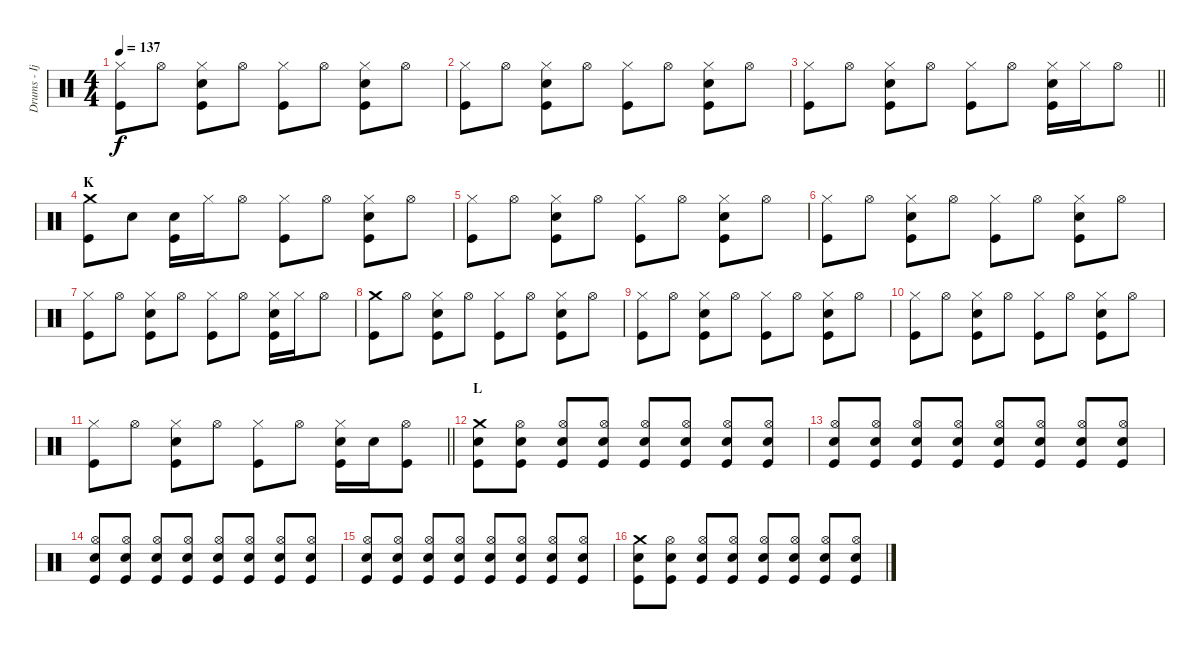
\track ("Drums - Ijichi" "Drums - Ij") {instrument percussion}
\staff {score}
\articulation defaults
\ts (4 4)
\tempo 137
\clef neutral
\ks c
("Hi-Hat (closed)" "Kick (hit)").8{dy f} "Hi-Hat (open)".8 ("Hi-Hat (closed)" "Electric Snare (hit)" "Kick (hit)").8 "Hi-Hat (open)".8 ("Hi-Hat (closed)" "Kick (hit)").8 "Hi-Hat (open)".8 ("Hi-Hat (closed)" "Electric Snare (hit)" "Kick (hit)").8 "Hi-Hat (open)".8 |
("Hi-Hat (closed)" "Kick (hit)").8 "Hi-Hat (open)".8 ("Hi-Hat (closed)" "Electric Snare (hit)" "Kick (hit)").8 "Hi-Hat (open)".8 ("Hi-Hat (closed)" "Kick (hit)").8 "Hi-Hat (open)".8 ("Hi-Hat (closed)" "Electric Snare (hit)" "Kick (hit)").8 "Hi-Hat (open)".8 |
\barLineRight lightlight
("Hi-Hat (closed)" "Kick (hit)").8 "Hi-Hat (open)".8 ("Hi-Hat (closed)" "Electric Snare (hit)" "Kick (hit)").8 "Hi-Hat (open)".8 ("Hi-Hat (closed)" "Kick (hit)").8 "Hi-Hat (open)".8 ("Hi-Hat (closed)" "Electric Snare (hit)" "Kick (hit)").16 "Hi-Hat (closed)".16 "Hi-Hat (open)".8 |
\section ("" "K")
("Crash medium (hit)" "Kick (hit)").8 "Electric Snare (hit)".8 ("Electric Snare (hit)" "Kick (hit)").16 "Hi-Hat (closed)".16 "Hi-Hat (open)".8 ("Hi-Hat (closed)" "Kick (hit)").8 "Hi-Hat (open)".8 ("Hi-Hat (closed)" "Electric Snare (hit)" "Kick (hit)").8 "Hi-Hat (open)".8 |
("Hi-Hat (closed)" "Kick (hit)").8 "Hi-Hat (open)".8 ("Hi-Hat (closed)" "Electric Snare (hit)" "Kick (hit)").8 "Hi-Hat (open)".8 ("Hi-Hat (closed)" "Kick (hit)").8 "Hi-Hat (open)".8 ("Hi-Hat (closed)" "Electric Snare (hit)" "Kick (hit)").8 "Hi-Hat (open)".8 |
("Hi-Hat (closed)" "Kick (hit)").8 "Hi-Hat (open)".8 ("Hi-Hat (closed)" "Electric Snare (hit)" "Kick (hit)").8 "Hi-Hat (open)".8 ("Hi-Hat (closed)" "Kick (hit)").8 "Hi-Hat (open)".8 ("Hi-Hat (closed)" "Electric Snare (hit)" "Kick (hit)").8 "Hi-Hat (open)".8 |
("Hi-Hat (closed)" "Kick (hit)").8 "Hi-Hat (open)".8 ("Hi-Hat (closed)" "Electric Snare (hit)" "Kick (hit)").8 "Hi-Hat (open)".8 ("Hi-Hat (closed)" "Kick (hit)").8 "Hi-Hat (open)".8 ("Hi-Hat (closed)" "Electric Snare (hit)" "Kick (hit)").16 "Hi-Hat (closed)".16 "Hi-Hat (open)".8 |
("Crash medium (hit)" "Kick (hit)").8 "Hi-Hat (open)".8 ("Hi-Hat (closed)" "Electric Snare (hit)" "Kick (hit)").8 "Hi-Hat (open)".8 ("Hi-Hat (closed)" "Kick (hit)").8 "Hi-Hat (open)".8 ("Hi-Hat (closed)" "Electric Snare (hit)" "Kick (hit)").8 "Hi-Hat (open)".8 |
("Hi-Hat (closed)" "Kick (hit)").8 "Hi-Hat (open)".8 ("Hi-Hat (closed)" "Electric Snare (hit)" "Kick (hit)").8 "Hi-Hat (open)".8 ("Hi-Hat (closed)" "Kick (hit)").8 "Hi-Hat (open)".8 ("Hi-Hat (closed)" "Electric Snare (hit)" "Kick (hit)").8 "Hi-Hat (open)".8 |
("Hi-Hat (closed)" "Kick (hit)").8 "Hi-Hat (open)".8 ("Hi-Hat (closed)" "Electric Snare (hit)" "Kick (hit)").8 "Hi-Hat (open)".8 ("Hi-Hat (closed)" "Kick (hit)").8 "Hi-Hat (open)".8 ("Hi-Hat (closed)" "Electric Snare (hit)" "Kick (hit)").8 "Hi-Hat (open)".8 |
\barLineRight lightlight
("Hi-Hat (closed)" "Kick (hit)").8 "Hi-Hat (open)".8 ("Hi-Hat (closed)" "Electric Snare (hit)" "Kick (hit)").8 "Hi-Hat (open)".8 ("Hi-Hat (closed)" "Kick (hit)").8 "Hi-Hat (open)".8 ("Hi-Hat (closed)" "Electric Snare (hit)" "Kick (hit)").16 "Electric Snare (hit)".16 ("Hi-Hat (open)" "Kick (hit)").8 |
\section ("" "L")
("Crash medium (hit)" "Electric Snare (hit)" "Kick (hit)").8{volume 10} ("Hi-Hat (open)" "Electric Snare (hit)" "Kick (hit)").8{volume 13} ("Hi-Hat (open)" "Electric Snare (hit)" "Kick (hit)").8 ("Hi-Hat (open)" "Electric Snare (hit)" "Kick (hit)").8 ("Hi-Hat (open)" "Electric Snare (hit)" "Kick (hit)").8 ("Hi-Hat (open)" "Electric Snare (hit)" "Kick (hit)").8 ("Hi-Hat (open)" "Electric Snare (hit)" "Kick (hit)").8 ("Hi-Hat (open)" "Electric Snare (hit)" "Kick (hit)").8 |
("Hi-Hat (open)" "Electric Snare (hit)" "Kick (hit)").8 ("Hi-Hat (open)" "Electric Snare (hit)" "Kick (hit)").8 ("Hi-Hat (open)" "Electric Snare (hit)" "Kick (hit)").8 ("Hi-Hat (open)" "Electric Snare (hit)" "Kick (hit)").8 ("Hi-Hat (open)" "Electric Snare (hit)" "Kick (hit)").8 ("Hi-Hat (open)" "Electric Snare (hit)" "Kick (hit)").8 ("Hi-Hat (open)" "Electric Snare (hit)" "Kick (hit)").8 ("Hi-Hat (open)" "Electric Snare (hit)" "Kick (hit)").8 |
("Hi-Hat (open)" "Electric Snare (hit)" "Kick (hit)").8 ("Hi-Hat (open)" "Electric Snare (hit)" "Kick (hit)").8 ("Hi-Hat (open)" "Electric Snare (hit)" "Kick (hit)").8 ("Hi-Hat (open)" "Electric Snare (hit)" "Kick (hit)").8 ("Hi-Hat (open)" "Electric Snare (hit)" "Kick (hit)").8 ("Hi-Hat (open)" "Electric Snare (hit)" "Kick (hit)").8 ("Hi-Hat (open)" "Electric Snare (hit)" "Kick (hit)").8 ("Hi-Hat (open)" "Electric Snare (hit)" "Kick (hit)").8 |
("Hi-Hat (open)" "Electric Snare (hit)" "Kick (hit)").8 ("Hi-Hat (open)" "Electric Snare (hit)" "Kick (hit)").8 ("Hi-Hat (open)" "Electric Snare (hit)" "Kick (hit)").8 ("Hi-Hat (open)" "Electric Snare (hit)" "Kick (hit)").8 ("Hi-Hat (open)" "Electric Snare (hit)" "Kick (hit)").8 ("Hi-Hat (open)" "Electric Snare (hit)" "Kick (hit)").8 ("Hi-Hat (open)" "Electric Snare (hit)" "Kick (hit)").8 ("Hi-Hat (open)" "Electric Snare (hit)" "Kick (hit)").8 |
("Crash medium (hit)" "Electric Snare (hit)" "Kick (hit)").8{volume 10} ("Hi-Hat (open)" "Electric Snare (hit)" "Kick (hit)").8{volume 13} ("Hi-Hat (open)" "Electric Snare (hit)" "Kick (hit)").8 ("Hi-Hat (open)" "Electric Snare (hit)" "Kick (hit)").8 ("Hi-Hat (open)" "Electric Snare (hit)" "Kick (hit)").8 ("Hi-Hat (open)" "Electric Snare (hit)" "Kick (hit)").8 ("Hi-Hat (open)" "Electric Snare (hit)" "Kick (hit)").8 ("Hi-Hat (open)" "Electric Snare (hit)" "Kick (hit)").8
